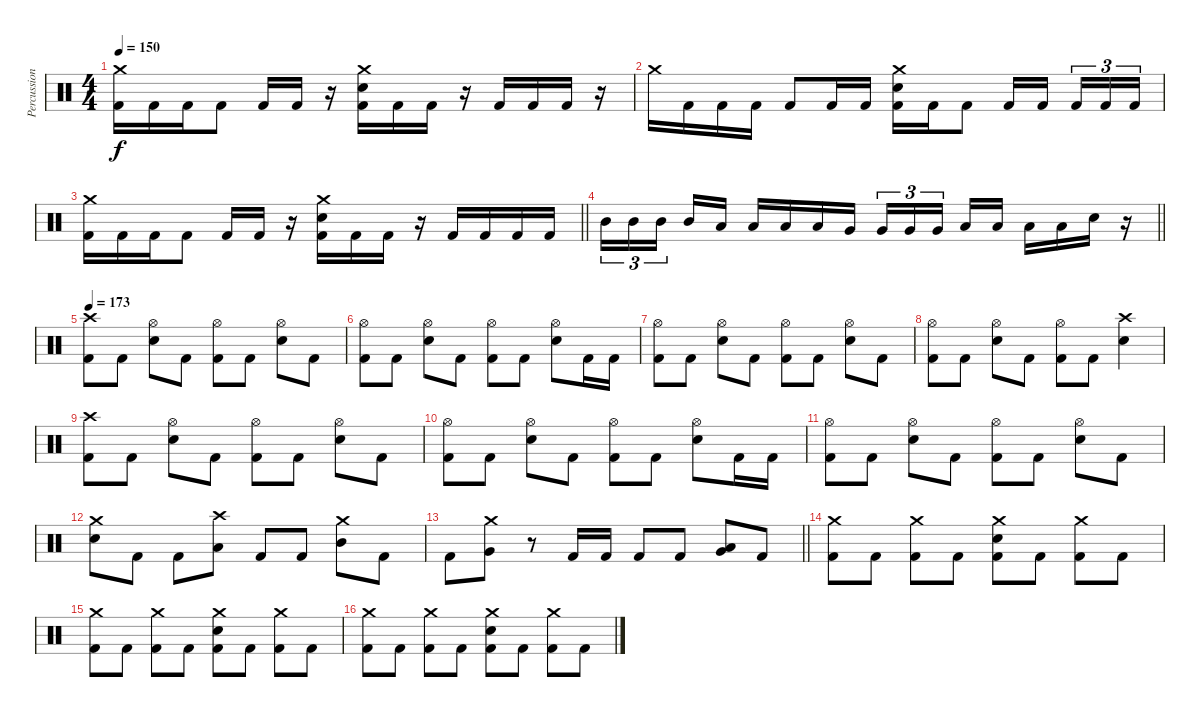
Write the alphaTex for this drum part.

\track ("Percussion" "Percussion") {instrument percussion}
\staff {score}
\articulation defaults
\ts (4 4)
\tempo 150
\clef neutral
\ks c
("Crash medium (hit)" "Kick (hit) 2").16{dy f} "Kick (hit) 2".16 "Kick (hit) 2".16 "Kick (hit) 2".8 "Kick (hit) 2".16 "Kick (hit) 2".16 r.16 ("Crash medium (hit)" "Electric Snare (hit)" "Kick (hit) 2").16 "Kick (hit) 2".16 "Kick (hit) 2".16 r.16 "Kick (hit) 2".16 "Kick (hit) 2".16 "Kick (hit) 2".16 r.16 |
"Crash medium (hit)".16 "Kick (hit) 2".16 "Kick (hit) 2".16 "Kick (hit) 2".16 "Kick (hit) 2".8 "Kick (hit) 2".16 "Kick (hit) 2".16 ("Crash medium (hit)" "Electric Snare (hit)" "Kick (hit) 2").16 "Kick (hit) 2".16 "Kick (hit) 2".8 "Kick (hit) 2".16 "Kick (hit) 2".16{beam splitsecondary} "Kick (hit) 2".16{tu (3 2)} "Kick (hit) 2".16{tu (3 2)} "Kick (hit) 2".16{tu (3 2)} |
\barLineRight lightlight
("Crash medium (hit)" "Kick (hit) 2").16 "Kick (hit) 2".16 "Kick (hit) 2".16 "Kick (hit) 2".8 "Kick (hit) 2".16 "Kick (hit) 2".16 r.16 ("Crash medium (hit)" "Electric Snare (hit)" "Kick (hit) 2").16 "Kick (hit) 2".16 "Kick (hit) 2".16 r.16 "Kick (hit) 2".16 "Kick (hit) 2".16 "Kick (hit) 2".16 "Kick (hit) 2".16 |
\barLineRight lightlight "Mid Tom (hit)".16{tu (3 2)} "Mid Tom (hit)".16{tu (3 2)} "Mid Tom (hit)".16{tu (3 2) beam splitsecondary} "Mid Tom (hit)".16 "Low Tom (hit)".16 "Low Tom (hit)".16 "Low Tom (hit)".16 "Low Tom (hit)".16 "Very Low Tom (hit)".16 "Very Low Tom (hit)".16{tu (3 2)} "Very Low Tom (hit)".16{tu (3 2)} "Very Low Tom (hit)".16{tu (3 2) beam splitsecondary} "Low Floor Tom (hit)".16 "Low Floor Tom (hit)".16 "Low Floor Tom (hit)".16 "Low Floor Tom (hit)".16 "Electric Snare (hit)".16
r.16 |
\tempo 173
("Crash high (hit)" "Kick (hit) 2").8 "Kick (hit) 2".8 ("Hi-Hat (open)" "Electric Snare (hit)").8 "Kick (hit) 2".8 ("Hi-Hat (open)" "Kick (hit) 2").8 "Kick (hit) 2".8 ("Hi-Hat (open)" "Electric Snare (hit)").8 "Kick (hit) 2".8 |
("Hi-Hat (open)" "Kick (hit) 2").8 "Kick (hit) 2".8 ("Hi-Hat (open)" "Electric Snare (hit)").8 "Kick (hit) 2".8 ("Hi-Hat (open)" "Kick (hit) 2").8 "Kick (hit) 2".8 ("Hi-Hat (open)" "Electric Snare (hit)").8 "Kick (hit) 2".16 "Kick (hit) 2".16 |
("Hi-Hat (open)" "Kick (hit) 2").8 "Kick (hit) 2".8 ("Hi-Hat (open)" "Electric Snare (hit)").8 "Kick (hit) 2".8 ("Hi-Hat (open)" "Kick (hit) 2").8 "Kick (hit) 2".8 ("Hi-Hat (open)" "Electric Snare (hit)").8 "Kick (hit) 2".8 |
("Hi-Hat (open)" "Kick (hit) 2").8 "Kick (hit) 2".8 ("Hi-Hat (open)" "Electric Snare (hit)").8 "Kick (hit) 2".8 ("Hi-Hat (open)" "Kick (hit) 2").8 "Kick (hit) 2".8 ("Crash high (hit)" "Electric Snare (hit)").4 |
("Crash high (hit)" "Kick (hit) 2").8 "Kick (hit) 2".8 ("Hi-Hat (open)" "Electric Snare (hit)").8 "Kick (hit) 2".8 ("Hi-Hat (open)" "Kick (hit) 2").8 "Kick (hit) 2".8 ("Hi-Hat (open)" "Electric Snare (hit)").8 "Kick (hit) 2".8 |
("Hi-Hat (open)" "Kick (hit) 2").8 "Kick (hit) 2".8 ("Hi-Hat (open)" "Electric Snare (hit)").8 "Kick (hit) 2".8 ("Hi-Hat (open)" "Kick (hit) 2").8 "Kick (hit) 2".8 ("Hi-Hat (open)" "Electric Snare (hit)").8 "Kick (hit) 2".16 "Kick (hit) 2".16 |
("Hi-Hat (open)" "Kick (hit) 2").8 "Kick (hit) 2".8 ("Hi-Hat (open)" "Electric Snare (hit)").8 "Kick (hit) 2".8 ("Hi-Hat (open)" "Kick (hit) 2").8 "Kick (hit) 2".8 ("Hi-Hat (open)" "Electric Snare (hit)").8 "Kick (hit) 2".8 |
("Crash medium (hit)" "Electric Snare (hit)").8 "Kick (hit) 2".8 "Kick (hit) 2".8 ("Crash high (hit)" "Low Tom (hit)").8 "Kick (hit) 2".8 "Kick (hit) 2".8 ("Crash medium (hit)" "Mid Tom (hit)").8 "Kick (hit) 2".8 |
\barLineRight lightlight "Kick (hit) 2".8
("Crash medium (hit)" "Very Low Tom (hit)").8 r.8 "Kick (hit) 2".16 "Kick (hit) 2".16 "Kick (hit) 2".8 "Kick (hit) 2".8 ("Low Floor Tom (hit)" "Very Low Tom (hit)").8{bd 240} "Kick (hit) 2".8 |
("Crash medium (hit)" "Kick (hit) 2").8 "Kick (hit) 2".8 ("Crash medium (hit)" "Kick (hit) 2").8 "Kick (hit) 2".8 ("Crash medium (hit)" "Electric Snare (hit)" "Kick (hit) 2").8 "Kick (hit) 2".8 ("Crash medium (hit)" "Kick (hit) 2").8 "Kick (hit) 2".8 |
("Crash medium (hit)" "Kick (hit) 2").8 "Kick (hit) 2".8 ("Crash medium (hit)" "Kick (hit) 2").8 "Kick (hit) 2".8 ("Crash medium (hit)" "Electric Snare (hit)" "Kick (hit) 2").8 "Kick (hit) 2".8 ("Crash medium (hit)" "Kick (hit) 2").8 "Kick (hit) 2".8 |
("Crash medium (hit)" "Kick (hit) 2").8 "Kick (hit) 2".8 ("Crash medium (hit)" "Kick (hit) 2").8 "Kick (hit) 2".8 ("Crash medium (hit)" "Electric Snare (hit)" "Kick (hit) 2").8 "Kick (hit) 2".8 ("Crash medium (hit)" "Kick (hit) 2").8 "Kick (hit) 2".8
